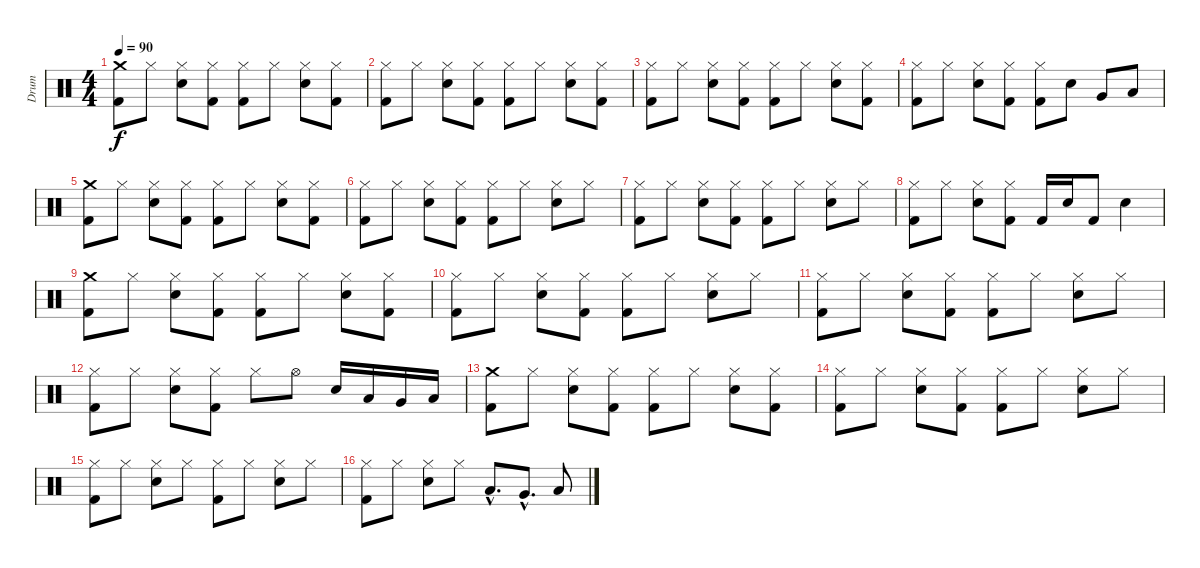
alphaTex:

\track ("Drum" "Drum") {instrument percussion}
\staff {score}
\articulation defaults
\ts (4 4)
\tempo 90
\clef neutral
\ks c
("Crash medium (hit)" "Kick (hit) 2").8{dy f} "Hi-Hat (closed)".8 ("Hi-Hat (closed)" "Snare (hit) 2").8 ("Hi-Hat (closed)" "Kick (hit) 2").8 ("Hi-Hat (closed)" "Kick (hit) 2").8 "Hi-Hat (closed)".8 ("Hi-Hat (closed)" "Snare (hit) 2").8 ("Hi-Hat (closed)" "Kick (hit) 2").8 |
("Hi-Hat (closed)" "Kick (hit) 2").8 "Hi-Hat (closed)".8 ("Hi-Hat (closed)" "Snare (hit) 2").8 ("Hi-Hat (closed)" "Kick (hit) 2").8 ("Hi-Hat (closed)" "Kick (hit) 2").8 "Hi-Hat (closed)".8 ("Hi-Hat (closed)" "Snare (hit) 2").8 ("Hi-Hat (closed)" "Kick (hit) 2").8 |
("Hi-Hat (closed)" "Kick (hit) 2").8 "Hi-Hat (closed)".8 ("Hi-Hat (closed)" "Snare (hit) 2").8 ("Hi-Hat (closed)" "Kick (hit) 2").8 ("Hi-Hat (closed)" "Kick (hit) 2").8 "Hi-Hat (closed)".8 ("Hi-Hat (closed)" "Snare (hit) 2").8 ("Hi-Hat (closed)" "Kick (hit) 2").8 |
("Hi-Hat (closed)" "Kick (hit) 2").8 "Hi-Hat (closed)".8 ("Hi-Hat (closed)" "Snare (hit) 2").8 ("Hi-Hat (closed)" "Kick (hit) 2").8 ("Hi-Hat (closed)" "Kick (hit) 2").8 "Snare (hit) 2".8 "Very Low Tom (hit)".8 "Low Floor Tom (hit)".8 |
("Crash medium (hit)" "Kick (hit) 2").8 "Hi-Hat (closed)".8 ("Hi-Hat (closed)" "Snare (hit) 2").8 ("Hi-Hat (closed)" "Kick (hit) 2").8 ("Hi-Hat (closed)" "Kick (hit) 2").8 "Hi-Hat (closed)".8 ("Hi-Hat (closed)" "Snare (hit) 2").8 ("Hi-Hat (closed)" "Kick (hit) 2").8 |
("Hi-Hat (closed)" "Kick (hit) 2").8 "Hi-Hat (closed)".8 ("Hi-Hat (closed)" "Snare (hit) 2").8 ("Hi-Hat (closed)" "Kick (hit) 2").8 ("Hi-Hat (closed)" "Kick (hit) 2").8 "Hi-Hat (closed)".8 ("Hi-Hat (closed)" "Snare (hit) 2").8 "Hi-Hat (closed)".8 |
("Hi-Hat (closed)" "Kick (hit) 2").8 "Hi-Hat (closed)".8 ("Hi-Hat (closed)" "Snare (hit) 2").8 ("Hi-Hat (closed)" "Kick (hit) 2").8 ("Hi-Hat (closed)" "Kick (hit) 2").8 "Hi-Hat (closed)".8 ("Hi-Hat (closed)" "Snare (hit) 2").8 "Hi-Hat (closed)".8 |
("Hi-Hat (closed)" "Kick (hit) 2").8 "Hi-Hat (closed)".8 ("Hi-Hat (closed)" "Snare (hit) 2").8 ("Hi-Hat (closed)" "Kick (hit) 2").8 "Kick (hit) 2".16 "Snare (hit) 2".16 "Kick (hit) 2".8 "Snare (hit) 2".4 |
("Crash medium (hit)" "Kick (hit) 2").8 "Hi-Hat (closed)".8 ("Hi-Hat (closed)" "Snare (hit) 2").8 ("Hi-Hat (closed)" "Kick (hit) 2").8 ("Hi-Hat (closed)" "Kick (hit) 2").8 "Hi-Hat (closed)".8 ("Hi-Hat (closed)" "Snare (hit) 2").8 ("Hi-Hat (closed)" "Kick (hit) 2").8 |
("Hi-Hat (closed)" "Kick (hit) 2").8 "Hi-Hat (closed)".8 ("Hi-Hat (closed)" "Snare (hit) 2").8 ("Hi-Hat (closed)" "Kick (hit) 2").8 ("Hi-Hat (closed)" "Kick (hit) 2").8 "Hi-Hat (closed)".8 ("Hi-Hat (closed)" "Snare (hit) 2").8 "Hi-Hat (closed)".8 |
("Hi-Hat (closed)" "Kick (hit) 2").8 "Hi-Hat (closed)".8 ("Hi-Hat (closed)" "Snare (hit) 2").8 ("Hi-Hat (closed)" "Kick (hit) 2").8 ("Hi-Hat (closed)" "Kick (hit) 2").8 "Hi-Hat (closed)".8 ("Hi-Hat (closed)" "Snare (hit) 2").8 "Hi-Hat (closed)".8 |
("Hi-Hat (closed)" "Kick (hit) 2").8 "Hi-Hat (closed)".8 ("Hi-Hat (closed)" "Snare (hit) 2").8 ("Hi-Hat (closed)" "Kick (hit) 2").8 "Hi-Hat (closed)".8 "Hi-Hat (open)".8 "Snare (hit) 2".16 "Low Tom (hit)".16 "Very Low Tom (hit)".16 "Low Floor Tom (hit)".16 |
("Crash medium (hit)" "Kick (hit) 2").8 "Hi-Hat (closed)".8 ("Hi-Hat (closed)" "Snare (hit) 2").8 ("Hi-Hat (closed)" "Kick (hit) 2").8 ("Hi-Hat (closed)" "Kick (hit) 2").8 "Hi-Hat (closed)".8 ("Hi-Hat (closed)" "Snare (hit) 2").8 ("Hi-Hat (closed)" "Kick (hit) 2").8 |
("Hi-Hat (closed)" "Kick (hit) 2").8 "Hi-Hat (closed)".8 ("Hi-Hat (closed)" "Snare (hit) 2").8 ("Hi-Hat (closed)" "Kick (hit) 2").8 ("Hi-Hat (closed)" "Kick (hit) 2").8 "Hi-Hat (closed)".8 ("Hi-Hat (closed)" "Snare (hit) 2").8 "Hi-Hat (closed)".8 |
("Hi-Hat (closed)" "Kick (hit) 2").8 "Hi-Hat (closed)".8 ("Hi-Hat (closed)" "Snare (hit) 2").8 "Hi-Hat (closed)".8 ("Hi-Hat (closed)" "Kick (hit) 2").8 "Hi-Hat (closed)".8 ("Hi-Hat (closed)" "Snare (hit) 2").8 "Hi-Hat (closed)".8 |
("Hi-Hat (closed)" "Kick (hit) 2").8 "Hi-Hat (closed)".8 ("Hi-Hat (closed)" "Snare (hit) 2").8 "Hi-Hat (closed)".8 "Low Tom (hit)"{hac}.8{d} "Very Low Tom (hit)"{hac}.8{d} "Low Floor Tom (hit)".8
